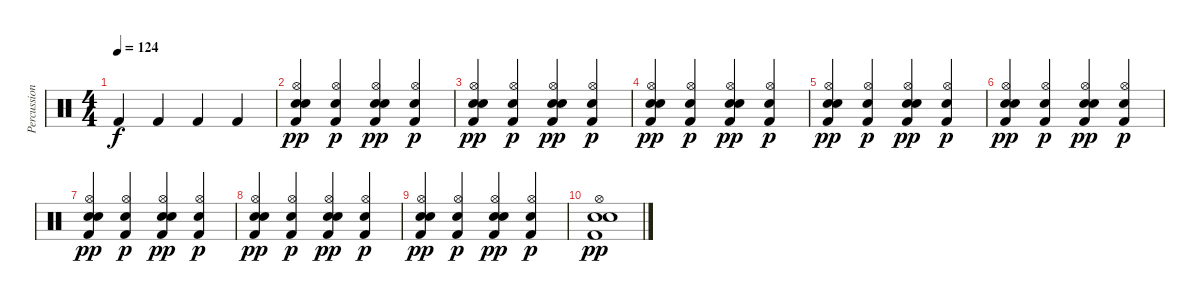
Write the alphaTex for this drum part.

\track ("Percussion" "Percussion") {instrument percussion}
\staff {score}
\articulation defaults
\ts (4 4)
\tempo 124
\clef neutral
\ks c "Kick (hit) 2".4{dy f} "Kick (hit) 2".4 "Kick (hit) 2".4 "Kick (hit) 2".4
|
("Hi-Hat (open)" "Electric Snare (hit)" "Snare (hit) 2" "Kick (hit) 2").4{dy pp} ("Hi-Hat (open)" "Snare (hit) 2" "Kick (hit) 2").4{dy p} ("Hi-Hat (open)" "Electric Snare (hit)" "Snare (hit) 2" "Kick (hit) 2").4{dy pp} ("Hi-Hat (open)" "Snare (hit) 2" "Kick (hit) 2").4{dy p} |
("Hi-Hat (open)" "Electric Snare (hit)" "Snare (hit) 2" "Kick (hit) 2").4{dy pp} ("Hi-Hat (open)" "Snare (hit) 2" "Kick (hit) 2").4{dy p} ("Hi-Hat (open)" "Electric Snare (hit)" "Snare (hit) 2" "Kick (hit) 2").4{dy pp} ("Hi-Hat (open)" "Snare (hit) 2" "Kick (hit) 2").4{dy p} |
("Hi-Hat (open)" "Electric Snare (hit)" "Snare (hit) 2" "Kick (hit) 2").4{dy pp} ("Hi-Hat (open)" "Snare (hit) 2" "Kick (hit) 2").4{dy p} ("Hi-Hat (open)" "Electric Snare (hit)" "Snare (hit) 2" "Kick (hit) 2").4{dy pp} ("Hi-Hat (open)" "Snare (hit) 2" "Kick (hit) 2").4{dy p} |
("Hi-Hat (open)" "Electric Snare (hit)" "Snare (hit) 2" "Kick (hit) 2").4{dy pp} ("Hi-Hat (open)" "Snare (hit) 2" "Kick (hit) 2").4{dy p} ("Hi-Hat (open)" "Electric Snare (hit)" "Snare (hit) 2" "Kick (hit) 2").4{dy pp} ("Hi-Hat (open)" "Snare (hit) 2" "Kick (hit) 2").4{dy p} |
("Hi-Hat (open)" "Electric Snare (hit)" "Snare (hit) 2" "Kick (hit) 2").4{dy pp} ("Hi-Hat (open)" "Snare (hit) 2" "Kick (hit) 2").4{dy p} ("Hi-Hat (open)" "Electric Snare (hit)" "Snare (hit) 2" "Kick (hit) 2").4{dy pp} ("Hi-Hat (open)" "Snare (hit) 2" "Kick (hit) 2").4{dy p} |
("Hi-Hat (open)" "Electric Snare (hit)" "Snare (hit) 2" "Kick (hit) 2").4{dy pp} ("Hi-Hat (open)" "Snare (hit) 2" "Kick (hit) 2").4{dy p} ("Hi-Hat (open)" "Electric Snare (hit)" "Snare (hit) 2" "Kick (hit) 2").4{dy pp} ("Hi-Hat (open)" "Snare (hit) 2" "Kick (hit) 2").4{dy p} |
("Hi-Hat (open)" "Electric Snare (hit)" "Snare (hit) 2" "Kick (hit) 2").4{dy pp} ("Hi-Hat (open)" "Snare (hit) 2" "Kick (hit) 2").4{dy p} ("Hi-Hat (open)" "Electric Snare (hit)" "Snare (hit) 2" "Kick (hit) 2").4{dy pp} ("Hi-Hat (open)" "Snare (hit) 2" "Kick (hit) 2").4{dy p} |
("Hi-Hat (open)" "Electric Snare (hit)" "Snare (hit) 2" "Kick (hit) 2").4{dy pp} ("Hi-Hat (open)" "Snare (hit) 2" "Kick (hit) 2").4{dy p} ("Hi-Hat (open)" "Electric Snare (hit)" "Snare (hit) 2" "Kick (hit) 2").4{dy pp} ("Hi-Hat (open)" "Snare (hit) 2" "Kick (hit) 2").4{dy p} |
("Hi-Hat (open)" "Electric Snare (hit)" "Snare (hit) 2" "Kick (hit) 2").1{dy pp}
